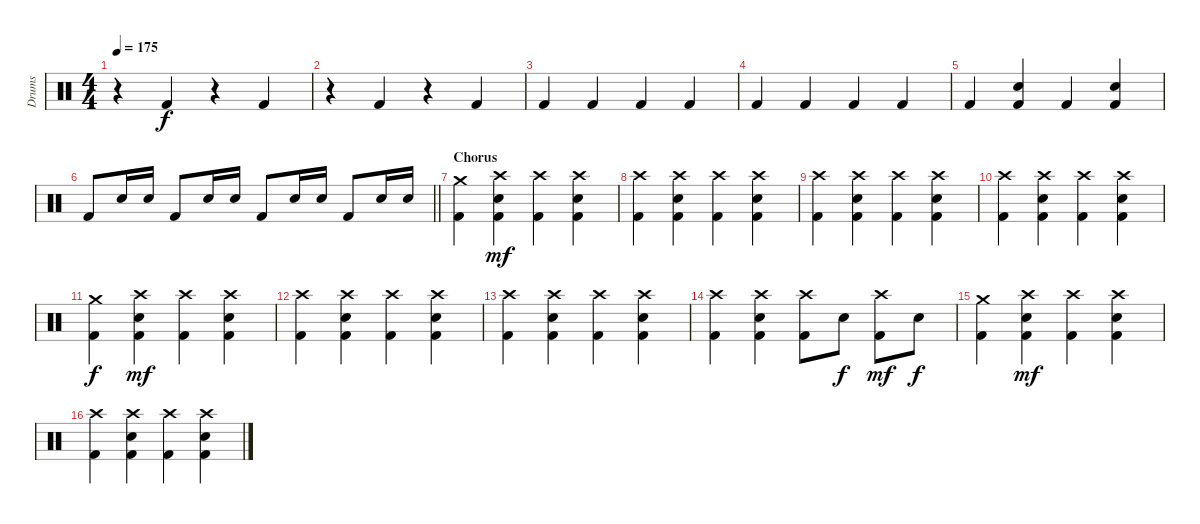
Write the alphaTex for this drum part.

\track ("Drums" "Drums") {instrument percussion}
\staff {score}
\articulation defaults
\ts (4 4)
\tempo 175
\clef neutral
\ks c
r.4{dy f} "Kick (hit) 2".4 r.4 "Kick (hit) 2".4 |
r.4 "Kick (hit) 2".4 r.4 "Kick (hit) 2".4 |
"Kick (hit) 2".4 "Kick (hit) 2".4 "Kick (hit) 2".4 "Kick (hit) 2".4 |
"Kick (hit) 2".4 "Kick (hit) 2".4 "Kick (hit) 2".4 "Kick (hit) 2".4 |
"Kick (hit) 2".4 ("Electric Snare (hit)" "Kick (hit) 2").4 "Kick (hit) 2".4 ("Electric Snare (hit)" "Kick (hit) 2").4 |
\barLineRight lightlight "Kick (hit) 2".8 "Electric Snare (hit)".16 "Electric Snare (hit)".16 "Kick (hit) 2".8 "Electric Snare (hit)".16 "Electric Snare (hit)".16 "Kick (hit) 2".8 "Electric Snare (hit)".16 "Electric Snare (hit)".16 "Kick (hit) 2".8 "Electric Snare (hit)".16 "Electric Snare (hit)".16
|
\section ("" "Chorus")
("Crash medium (hit)" "Kick (hit) 2").4 ("Crash high (hit)" "Electric Snare (hit)" "Kick (hit) 2").4{dy mf} ("Crash high (hit)" "Kick (hit) 2").4 ("Crash high (hit)" "Electric Snare (hit)" "Kick (hit) 2").4 |
("Crash high (hit)" "Kick (hit) 2").4 ("Crash high (hit)" "Electric Snare (hit)" "Kick (hit) 2").4 ("Crash high (hit)" "Kick (hit) 2").4 ("Crash high (hit)" "Electric Snare (hit)" "Kick (hit) 2").4 |
("Crash high (hit)" "Kick (hit) 2").4 ("Crash high (hit)" "Electric Snare (hit)" "Kick (hit) 2").4 ("Crash high (hit)" "Kick (hit) 2").4 ("Crash high (hit)" "Electric Snare (hit)" "Kick (hit) 2").4 |
("Crash high (hit)" "Kick (hit) 2").4 ("Crash high (hit)" "Electric Snare (hit)" "Kick (hit) 2").4 ("Crash high (hit)" "Kick (hit) 2").4 ("Crash high (hit)" "Electric Snare (hit)" "Kick (hit) 2").4 |
("Crash medium (hit)" "Kick (hit) 2").4{dy f} ("Crash high (hit)" "Electric Snare (hit)" "Kick (hit) 2").4{dy mf} ("Crash high (hit)" "Kick (hit) 2").4 ("Crash high (hit)" "Electric Snare (hit)" "Kick (hit) 2").4 |
("Crash high (hit)" "Kick (hit) 2").4 ("Crash high (hit)" "Electric Snare (hit)" "Kick (hit) 2").4 ("Crash high (hit)" "Kick (hit) 2").4 ("Crash high (hit)" "Electric Snare (hit)" "Kick (hit) 2").4 |
("Crash high (hit)" "Kick (hit) 2").4 ("Crash high (hit)" "Electric Snare (hit)" "Kick (hit) 2").4 ("Crash high (hit)" "Kick (hit) 2").4 ("Crash high (hit)" "Electric Snare (hit)" "Kick (hit) 2").4 |
("Crash high (hit)" "Kick (hit) 2").4 ("Crash high (hit)" "Electric Snare (hit)" "Kick (hit) 2").4 ("Crash high (hit)" "Kick (hit) 2").8 "Electric Snare (hit)".8{dy f} ("Crash high (hit)" "Kick (hit) 2").8{dy mf} "Electric Snare (hit)".8{dy f} |
("Crash medium (hit)" "Kick (hit) 2").4 ("Crash high (hit)" "Electric Snare (hit)" "Kick (hit) 2").4{dy mf} ("Crash high (hit)" "Kick (hit) 2").4 ("Crash high (hit)" "Electric Snare (hit)" "Kick (hit) 2").4 |
("Crash high (hit)" "Kick (hit) 2").4 ("Crash high (hit)" "Electric Snare (hit)" "Kick (hit) 2").4 ("Crash high (hit)" "Kick (hit) 2").4 ("Crash high (hit)" "Electric Snare (hit)" "Kick (hit) 2").4
